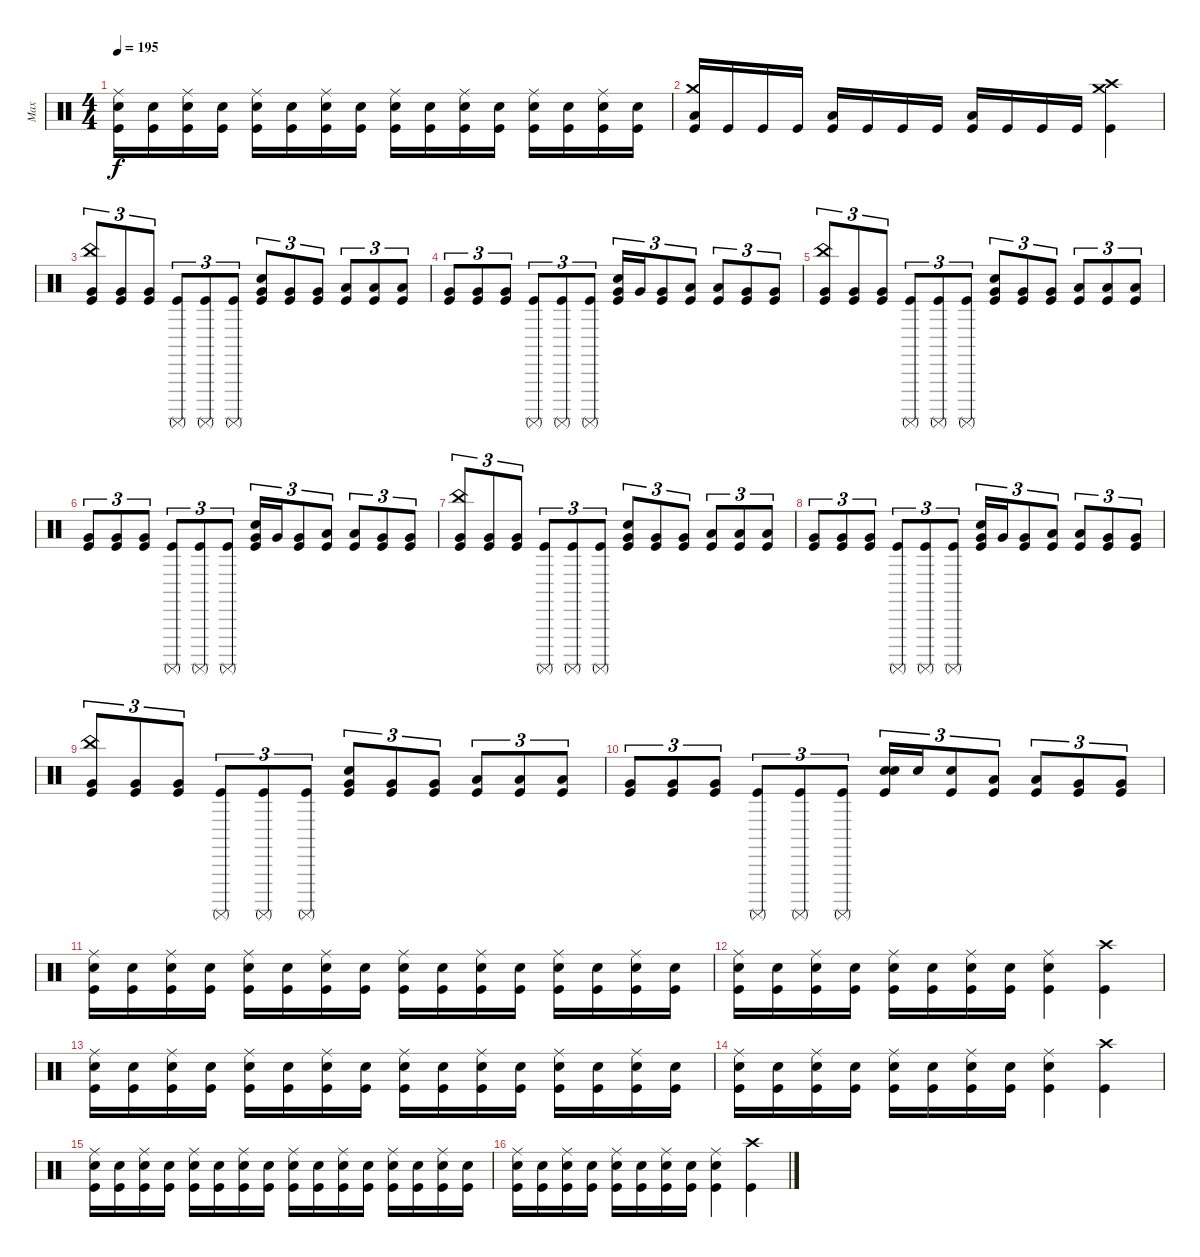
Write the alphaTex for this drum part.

\track ("Max" "Max") {instrument percussion}
\staff {score}
\articulation defaults
\ts (4 4)
\tempo 195
\clef neutral
\ks c
("Ride (middle)" "Electric Snare (hit)" "Kick (hit)").16{dy f} ("Electric Snare (hit)" "Kick (hit)").16 ("Ride (middle)" "Electric Snare (hit)" "Kick (hit)").16 ("Electric Snare (hit)" "Kick (hit)").16 ("Ride (middle)" "Electric Snare (hit)" "Kick (hit)").16 ("Electric Snare (hit)" "Kick (hit)").16 ("Ride (middle)" "Electric Snare (hit)" "Kick (hit)").16 ("Electric Snare (hit)" "Kick (hit)").16 ("Ride (middle)" "Electric Snare (hit)" "Kick (hit)").16 ("Electric Snare (hit)" "Kick (hit)").16 ("Ride (middle)" "Electric Snare (hit)" "Kick (hit)").16 ("Electric Snare (hit)" "Kick (hit)").16 ("Ride (middle)" "Electric Snare (hit)" "Kick (hit)").16 ("Electric Snare (hit)" "Kick (hit)").16 ("Ride (middle)" "Electric Snare (hit)" "Kick (hit)").16 ("Electric Snare (hit)" "Kick (hit)").16 |
("Crash medium (hit)" "Low Tom (hit)" "Kick (hit)").16 "Kick (hit)".16 "Kick (hit)".16 "Kick (hit)".16 ("Low Tom (hit)" "Kick (hit)").16 "Kick (hit)".16 "Kick (hit)".16 "Kick (hit)".16 ("Low Tom (hit)" "Kick (hit)").16 "Kick (hit)".16 "Kick (hit)".16 "Kick (hit)".16 ("Crash medium (hit)" "Crash high (hit)" "Kick (hit)").4 |
("China (hit)" "Very Low Tom (hit)" "Kick (hit)").8{tu (3 2)} ("Very Low Tom (hit)" "Kick (hit)").8{tu (3 2)} ("Very Low Tom (hit)" "Kick (hit)").8{tu (3 2)} ("Surdo (mute)" "Kick (hit)").8{tu (3 2)} ("Surdo (mute)" "Kick (hit)").8{tu (3 2)} ("Surdo (mute)" "Kick (hit)").8{tu (3 2)} ("Very Low Tom (hit)" "Electric Snare (hit)" "Kick (hit)").8{tu (3 2)} ("Very Low Tom (hit)" "Kick (hit)").8{tu (3 2)} ("Very Low Tom (hit)" "Kick (hit)").8{tu (3 2)} ("Low Tom (hit)" "Kick (hit)").8{tu (3 2)} ("Low Tom (hit)" "Kick (hit)").8{tu (3 2)} ("Low Tom (hit)" "Kick (hit)").8{tu (3 2)} |
("Very Low Tom (hit)" "Kick (hit)").8{tu (3 2)} ("Very Low Tom (hit)" "Kick (hit)").8{tu (3 2)} ("Very Low Tom (hit)" "Kick (hit)").8{tu (3 2)} ("Surdo (mute)" "Kick (hit)").8{tu (3 2)} ("Surdo (mute)" "Kick (hit)").8{tu (3 2)} ("Surdo (mute)" "Kick (hit)").8{tu (3 2)} ("Very Low Tom (hit)" "Electric Snare (hit)" "Kick (hit)").16{tu (3 2)} "Very Low Tom (hit)".16{tu (3 2)} ("Very Low Tom (hit)" "Kick (hit)").8{tu (3 2)} ("Low Tom (hit)" "Kick (hit)").8{tu (3 2)} ("Low Tom (hit)" "Kick (hit)").8{tu (3 2)} ("Very Low Tom (hit)" "Kick (hit)").8{tu (3 2)} ("Very Low Tom (hit)" "Kick (hit)").8{tu (3 2)} |
("China (hit)" "Very Low Tom (hit)" "Kick (hit)").8{tu (3 2)} ("Very Low Tom (hit)" "Kick (hit)").8{tu (3 2)} ("Very Low Tom (hit)" "Kick (hit)").8{tu (3 2)} ("Surdo (mute)" "Kick (hit)").8{tu (3 2)} ("Surdo (mute)" "Kick (hit)").8{tu (3 2)} ("Surdo (mute)" "Kick (hit)").8{tu (3 2)} ("Very Low Tom (hit)" "Electric Snare (hit)" "Kick (hit)").8{tu (3 2)} ("Very Low Tom (hit)" "Kick (hit)").8{tu (3 2)} ("Very Low Tom (hit)" "Kick (hit)").8{tu (3 2)} ("Low Tom (hit)" "Kick (hit)").8{tu (3 2)} ("Low Tom (hit)" "Kick (hit)").8{tu (3 2)} ("Low Tom (hit)" "Kick (hit)").8{tu (3 2)} |
("Very Low Tom (hit)" "Kick (hit)").8{tu (3 2)} ("Very Low Tom (hit)" "Kick (hit)").8{tu (3 2)} ("Very Low Tom (hit)" "Kick (hit)").8{tu (3 2)} ("Surdo (mute)" "Kick (hit)").8{tu (3 2)} ("Surdo (mute)" "Kick (hit)").8{tu (3 2)} ("Surdo (mute)" "Kick (hit)").8{tu (3 2)} ("Very Low Tom (hit)" "Electric Snare (hit)" "Kick (hit)").16{tu (3 2)} "Very Low Tom (hit)".16{tu (3 2)} ("Very Low Tom (hit)" "Kick (hit)").8{tu (3 2)} ("Low Tom (hit)" "Kick (hit)").8{tu (3 2)} ("Low Tom (hit)" "Kick (hit)").8{tu (3 2)} ("Very Low Tom (hit)" "Kick (hit)").8{tu (3 2)} ("Very Low Tom (hit)" "Kick (hit)").8{tu (3 2)} |
("China (hit)" "Very Low Tom (hit)" "Kick (hit)").8{tu (3 2)} ("Very Low Tom (hit)" "Kick (hit)").8{tu (3 2)} ("Very Low Tom (hit)" "Kick (hit)").8{tu (3 2)} ("Surdo (mute)" "Kick (hit)").8{tu (3 2)} ("Surdo (mute)" "Kick (hit)").8{tu (3 2)} ("Surdo (mute)" "Kick (hit)").8{tu (3 2)} ("Very Low Tom (hit)" "Electric Snare (hit)" "Kick (hit)").8{tu (3 2)} ("Very Low Tom (hit)" "Kick (hit)").8{tu (3 2)} ("Very Low Tom (hit)" "Kick (hit)").8{tu (3 2)} ("Low Tom (hit)" "Kick (hit)").8{tu (3 2)} ("Low Tom (hit)" "Kick (hit)").8{tu (3 2)} ("Low Tom (hit)" "Kick (hit)").8{tu (3 2)} |
("Very Low Tom (hit)" "Kick (hit)").8{tu (3 2)} ("Very Low Tom (hit)" "Kick (hit)").8{tu (3 2)} ("Very Low Tom (hit)" "Kick (hit)").8{tu (3 2)} ("Surdo (mute)" "Kick (hit)").8{tu (3 2)} ("Surdo (mute)" "Kick (hit)").8{tu (3 2)} ("Surdo (mute)" "Kick (hit)").8{tu (3 2)} ("Very Low Tom (hit)" "Electric Snare (hit)" "Kick (hit)").16{tu (3 2)} "Very Low Tom (hit)".16{tu (3 2)} ("Very Low Tom (hit)" "Kick (hit)").8{tu (3 2)} ("Low Tom (hit)" "Kick (hit)").8{tu (3 2)} ("Low Tom (hit)" "Kick (hit)").8{tu (3 2)} ("Very Low Tom (hit)" "Kick (hit)").8{tu (3 2)} ("Very Low Tom (hit)" "Kick (hit)").8{tu (3 2)} |
("China (hit)" "Very Low Tom (hit)" "Kick (hit)").8{tu (3 2)} ("Very Low Tom (hit)" "Kick (hit)").8{tu (3 2)} ("Very Low Tom (hit)" "Kick (hit)").8{tu (3 2)} ("Surdo (mute)" "Kick (hit)").8{tu (3 2)} ("Surdo (mute)" "Kick (hit)").8{tu (3 2)} ("Surdo (mute)" "Kick (hit)").8{tu (3 2)} ("Very Low Tom (hit)" "Electric Snare (hit)" "Kick (hit)").8{tu (3 2)} ("Very Low Tom (hit)" "Kick (hit)").8{tu (3 2)} ("Very Low Tom (hit)" "Kick (hit)").8{tu (3 2)} ("Low Tom (hit)" "Kick (hit)").8{tu (3 2)} ("Low Tom (hit)" "Kick (hit)").8{tu (3 2)} ("Low Tom (hit)" "Kick (hit)").8{tu (3 2)} |
("Very Low Tom (hit)" "Kick (hit)").8{tu (3 2)} ("Very Low Tom (hit)" "Kick (hit)").8{tu (3 2)} ("Very Low Tom (hit)" "Kick (hit)").8{tu (3 2)} ("Surdo (mute)" "Kick (hit)").8{tu (3 2)} ("Surdo (mute)" "Kick (hit)").8{tu (3 2)} ("Surdo (mute)" "Kick (hit)").8{tu (3 2)} ("Electric Snare (hit)" "Electric Snare (hit)" "Kick (hit)").16{tu (3 2)} "Electric Snare (hit)".16{tu (3 2)} ("Electric Snare (hit)" "Kick (hit)").8{tu (3 2)} ("Low Tom (hit)" "Kick (hit)").8{tu (3 2)} ("Low Tom (hit)" "Kick (hit)").8{tu (3 2)} ("Very Low Tom (hit)" "Kick (hit)").8{tu (3 2)} ("Very Low Tom (hit)" "Kick (hit)").8{tu (3 2)} |
("Ride (middle)" "Electric Snare (hit)" "Kick (hit)").16 ("Electric Snare (hit)" "Kick (hit)").16 ("Ride (middle)" "Electric Snare (hit)" "Kick (hit)").16 ("Electric Snare (hit)" "Kick (hit)").16 ("Ride (middle)" "Electric Snare (hit)" "Kick (hit)").16 ("Electric Snare (hit)" "Kick (hit)").16 ("Ride (middle)" "Electric Snare (hit)" "Kick (hit)").16 ("Electric Snare (hit)" "Kick (hit)").16 ("Ride (middle)" "Electric Snare (hit)" "Kick (hit)").16 ("Electric Snare (hit)" "Kick (hit)").16 ("Ride (middle)" "Electric Snare (hit)" "Kick (hit)").16 ("Electric Snare (hit)" "Kick (hit)").16 ("Ride (middle)" "Electric Snare (hit)" "Kick (hit)").16 ("Electric Snare (hit)" "Kick (hit)").16 ("Ride (middle)" "Electric Snare (hit)" "Kick (hit)").16 ("Electric Snare (hit)" "Kick (hit)").16 |
("Ride (middle)" "Electric Snare (hit)" "Kick (hit)").16 ("Electric Snare (hit)" "Kick (hit)").16 ("Ride (middle)" "Electric Snare (hit)" "Kick (hit)").16 ("Electric Snare (hit)" "Kick (hit)").16 ("Ride (middle)" "Electric Snare (hit)" "Kick (hit)").16 ("Electric Snare (hit)" "Kick (hit)").16 ("Ride (middle)" "Electric Snare (hit)" "Kick (hit)").16 ("Electric Snare (hit)" "Kick (hit)").16 ("Ride (middle)" "Electric Snare (hit)" "Kick (hit)").4 ("Crash high (hit)" "Kick (hit)").4 |
("Ride (middle)" "Electric Snare (hit)" "Kick (hit)").16 ("Electric Snare (hit)" "Kick (hit)").16 ("Ride (middle)" "Electric Snare (hit)" "Kick (hit)").16 ("Electric Snare (hit)" "Kick (hit)").16 ("Ride (middle)" "Electric Snare (hit)" "Kick (hit)").16 ("Electric Snare (hit)" "Kick (hit)").16 ("Ride (middle)" "Electric Snare (hit)" "Kick (hit)").16 ("Electric Snare (hit)" "Kick (hit)").16 ("Ride (middle)" "Electric Snare (hit)" "Kick (hit)").16 ("Electric Snare (hit)" "Kick (hit)").16 ("Ride (middle)" "Electric Snare (hit)" "Kick (hit)").16 ("Electric Snare (hit)" "Kick (hit)").16 ("Ride (middle)" "Electric Snare (hit)" "Kick (hit)").16 ("Electric Snare (hit)" "Kick (hit)").16 ("Ride (middle)" "Electric Snare (hit)" "Kick (hit)").16 ("Electric Snare (hit)" "Kick (hit)").16 |
("Ride (middle)" "Electric Snare (hit)" "Kick (hit)").16 ("Electric Snare (hit)" "Kick (hit)").16 ("Ride (middle)" "Electric Snare (hit)" "Kick (hit)").16 ("Electric Snare (hit)" "Kick (hit)").16 ("Ride (middle)" "Electric Snare (hit)" "Kick (hit)").16 ("Electric Snare (hit)" "Kick (hit)").16 ("Ride (middle)" "Electric Snare (hit)" "Kick (hit)").16 ("Electric Snare (hit)" "Kick (hit)").16 ("Ride (middle)" "Electric Snare (hit)" "Kick (hit)").4 ("Crash high (hit)" "Kick (hit)").4 |
("Ride (middle)" "Electric Snare (hit)" "Kick (hit)").16 ("Electric Snare (hit)" "Kick (hit)").16 ("Ride (middle)" "Electric Snare (hit)" "Kick (hit)").16 ("Electric Snare (hit)" "Kick (hit)").16 ("Ride (middle)" "Electric Snare (hit)" "Kick (hit)").16 ("Electric Snare (hit)" "Kick (hit)").16 ("Ride (middle)" "Electric Snare (hit)" "Kick (hit)").16 ("Electric Snare (hit)" "Kick (hit)").16 ("Ride (middle)" "Electric Snare (hit)" "Kick (hit)").16 ("Electric Snare (hit)" "Kick (hit)").16 ("Ride (middle)" "Electric Snare (hit)" "Kick (hit)").16 ("Electric Snare (hit)" "Kick (hit)").16 ("Ride (middle)" "Electric Snare (hit)" "Kick (hit)").16 ("Electric Snare (hit)" "Kick (hit)").16 ("Ride (middle)" "Electric Snare (hit)" "Kick (hit)").16 ("Electric Snare (hit)" "Kick (hit)").16 |
("Ride (middle)" "Electric Snare (hit)" "Kick (hit)").16 ("Electric Snare (hit)" "Kick (hit)").16 ("Ride (middle)" "Electric Snare (hit)" "Kick (hit)").16 ("Electric Snare (hit)" "Kick (hit)").16 ("Ride (middle)" "Electric Snare (hit)" "Kick (hit)").16 ("Electric Snare (hit)" "Kick (hit)").16 ("Ride (middle)" "Electric Snare (hit)" "Kick (hit)").16 ("Electric Snare (hit)" "Kick (hit)").16 ("Ride (middle)" "Electric Snare (hit)" "Kick (hit)").4 ("Crash high (hit)" "Kick (hit)").4
